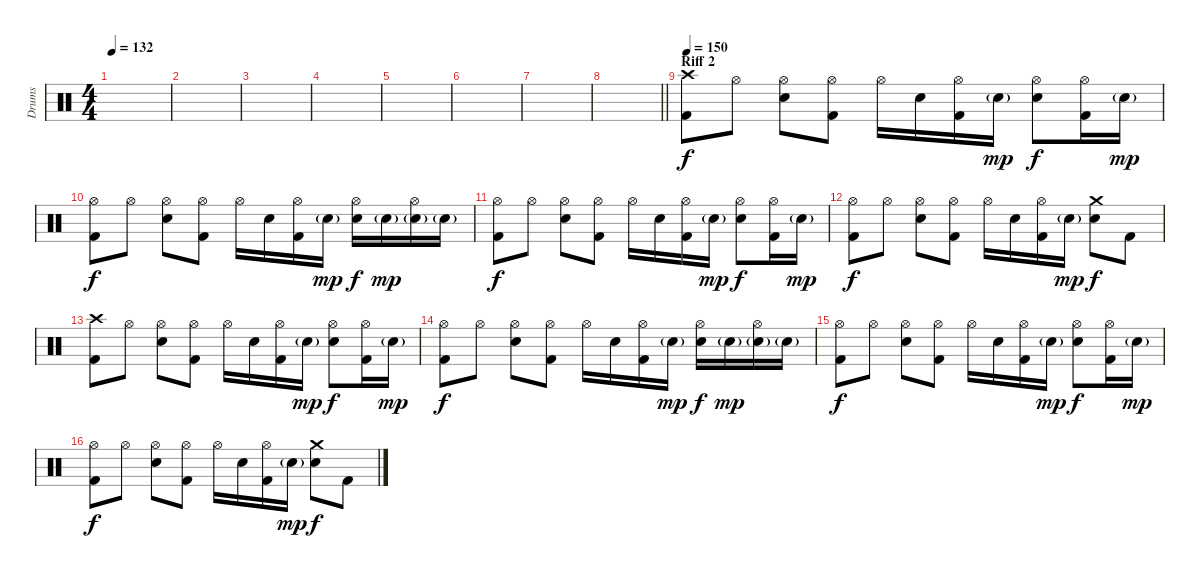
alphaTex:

\track ("Drums" "Drums") {instrument percussion}
\staff {score}
\articulation defaults
\ts (4 4)
\tempo 132
\clef neutral
\ks c
|
|
|
|
|
|
|
\barLineRight lightlight
|
\section ("" "Riff 2")
\tempo 150
("Crash high (hit)" "Kick (hit) 2").8{volume 12} "Hi-Hat (open)".8 ("Hi-Hat (open)" "Electric Snare (hit)").8 ("Hi-Hat (open)" "Kick (hit) 2").8 "Hi-Hat (open)".16 "Electric Snare (hit)".16 ("Hi-Hat (open)" "Kick (hit) 2").16 "Electric Snare (hit)"{g}.16{dy mp} ("Hi-Hat (open)" "Electric Snare (hit)").8{dy f} ("Hi-Hat (open)" "Kick (hit) 2").16 "Electric Snare (hit)"{g}.16{dy mp} |
("Hi-Hat (open)" "Kick (hit) 2").8{dy f} "Hi-Hat (open)".8 ("Hi-Hat (open)" "Electric Snare (hit)").8 ("Hi-Hat (open)" "Kick (hit) 2").8 "Hi-Hat (open)".16 "Electric Snare (hit)".16 ("Hi-Hat (open)" "Kick (hit) 2").16 "Electric Snare (hit)"{g}.16{dy mp} ("Hi-Hat (open)" "Electric Snare (hit)").16{dy f} "Electric Snare (hit)"{g}.16{dy mp} ("Hi-Hat (open)" "Electric Snare (hit)"{g}).16 "Electric Snare (hit)"{g}.16 |
("Hi-Hat (open)" "Kick (hit) 2").8{dy f} "Hi-Hat (open)".8 ("Hi-Hat (open)" "Electric Snare (hit)").8 ("Hi-Hat (open)" "Kick (hit) 2").8 "Hi-Hat (open)".16 "Electric Snare (hit)".16 ("Hi-Hat (open)" "Kick (hit) 2").16 "Electric Snare (hit)"{g}.16{dy mp} ("Hi-Hat (open)" "Electric Snare (hit)").8{dy f} ("Hi-Hat (open)" "Kick (hit) 2").16 "Electric Snare (hit)"{g}.16{dy mp} |
("Hi-Hat (open)" "Kick (hit) 2").8{dy f} "Hi-Hat (open)".8 ("Hi-Hat (open)" "Electric Snare (hit)").8 ("Hi-Hat (open)" "Kick (hit) 2").8 "Hi-Hat (open)".16 "Electric Snare (hit)".16 ("Hi-Hat (open)" "Kick (hit) 2").16 "Electric Snare (hit)"{g}.16{dy mp} ("Crash medium (hit)" "Electric Snare (hit)").8{dy f} "Kick (hit) 2".8 |
("Crash high (hit)" "Kick (hit) 2").8 "Hi-Hat (open)".8 ("Hi-Hat (open)" "Electric Snare (hit)").8 ("Hi-Hat (open)" "Kick (hit) 2").8 "Hi-Hat (open)".16 "Electric Snare (hit)".16 ("Hi-Hat (open)" "Kick (hit) 2").16 "Electric Snare (hit)"{g}.16{dy mp} ("Hi-Hat (open)" "Electric Snare (hit)").8{dy f} ("Hi-Hat (open)" "Kick (hit) 2").16 "Electric Snare (hit)"{g}.16{dy mp} |
("Hi-Hat (open)" "Kick (hit) 2").8{dy f} "Hi-Hat (open)".8 ("Hi-Hat (open)" "Electric Snare (hit)").8 ("Hi-Hat (open)" "Kick (hit) 2").8 "Hi-Hat (open)".16 "Electric Snare (hit)".16 ("Hi-Hat (open)" "Kick (hit) 2").16 "Electric Snare (hit)"{g}.16{dy mp} ("Hi-Hat (open)" "Electric Snare (hit)").16{dy f} "Electric Snare (hit)"{g}.16{dy mp} ("Hi-Hat (open)" "Electric Snare (hit)"{g}).16 "Electric Snare (hit)"{g}.16 |
("Hi-Hat (open)" "Kick (hit) 2").8{dy f} "Hi-Hat (open)".8 ("Hi-Hat (open)" "Electric Snare (hit)").8 ("Hi-Hat (open)" "Kick (hit) 2").8 "Hi-Hat (open)".16 "Electric Snare (hit)".16 ("Hi-Hat (open)" "Kick (hit) 2").16 "Electric Snare (hit)"{g}.16{dy mp} ("Hi-Hat (open)" "Electric Snare (hit)").8{dy f} ("Hi-Hat (open)" "Kick (hit) 2").16 "Electric Snare (hit)"{g}.16{dy mp} |
("Hi-Hat (open)" "Kick (hit) 2").8{dy f} "Hi-Hat (open)".8 ("Hi-Hat (open)" "Electric Snare (hit)").8 ("Hi-Hat (open)" "Kick (hit) 2").8 "Hi-Hat (open)".16 "Electric Snare (hit)".16 ("Hi-Hat (open)" "Kick (hit) 2").16 "Electric Snare (hit)"{g}.16{dy mp} ("Crash medium (hit)" "Electric Snare (hit)").8{dy f} "Kick (hit) 2".8
